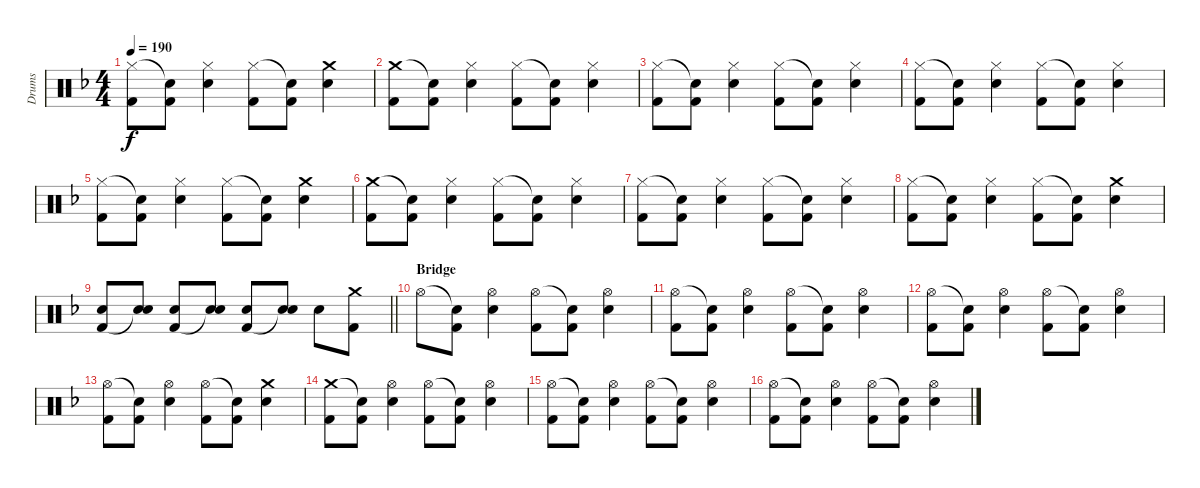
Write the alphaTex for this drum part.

\track ("Drums" "Drums") {instrument percussion}
\staff {score}
\articulation defaults
\ts (4 4)
\tempo 190
\clef neutral
\ks dminor
("Hi-Hat (closed)" "Kick (hit) 2").8{dy f} ("Snare (hit)"{t} "Kick (hit) 2").8 ("Hi-Hat (closed)" "Electric Snare (hit)").4 ("Hi-Hat (closed)" "Kick (hit) 2").8 ("Snare (hit)"{t} "Kick (hit) 2").8 ("Crash medium (hit)" "Electric Snare (hit)").4 |
("Crash medium (hit)" "Kick (hit) 2").8 ("Snare (hit)"{t} "Kick (hit) 2").8 ("Hi-Hat (closed)" "Electric Snare (hit)").4 ("Hi-Hat (closed)" "Kick (hit) 2").8 ("Snare (hit)"{t} "Kick (hit) 2").8 ("Hi-Hat (closed)" "Electric Snare (hit)").4 |
("Hi-Hat (closed)" "Kick (hit) 2").8 ("Snare (hit)"{t} "Kick (hit) 2").8 ("Hi-Hat (closed)" "Electric Snare (hit)").4 ("Hi-Hat (closed)" "Kick (hit) 2").8 ("Snare (hit)"{t} "Kick (hit) 2").8 ("Hi-Hat (closed)" "Electric Snare (hit)").4 |
("Hi-Hat (closed)" "Kick (hit) 2").8 ("Snare (hit)"{t} "Kick (hit) 2").8 ("Hi-Hat (closed)" "Electric Snare (hit)").4 ("Hi-Hat (closed)" "Kick (hit) 2").8 ("Snare (hit)"{t} "Kick (hit) 2").8 ("Hi-Hat (closed)" "Electric Snare (hit)").4 |
("Hi-Hat (closed)" "Kick (hit) 2").8 ("Snare (hit)"{t} "Kick (hit) 2").8 ("Hi-Hat (closed)" "Electric Snare (hit)").4 ("Hi-Hat (closed)" "Kick (hit) 2").8 ("Snare (hit)"{t} "Kick (hit) 2").8 ("Crash medium (hit)" "Electric Snare (hit)").4 |
("Crash medium (hit)" "Kick (hit) 2").8 ("Snare (hit)"{t} "Kick (hit) 2").8 ("Hi-Hat (closed)" "Electric Snare (hit)").4 ("Hi-Hat (closed)" "Kick (hit) 2").8 ("Snare (hit)"{t} "Kick (hit) 2").8 ("Hi-Hat (closed)" "Electric Snare (hit)").4 |
("Hi-Hat (closed)" "Kick (hit) 2").8 ("Snare (hit)"{t} "Kick (hit) 2").8 ("Hi-Hat (closed)" "Electric Snare (hit)").4 ("Hi-Hat (closed)" "Kick (hit) 2").8 ("Snare (hit)"{t} "Kick (hit) 2").8 ("Hi-Hat (closed)" "Electric Snare (hit)").4 |
("Hi-Hat (closed)" "Kick (hit) 2").8 ("Snare (hit)"{t} "Kick (hit) 2").8 ("Hi-Hat (closed)" "Electric Snare (hit)").4 ("Hi-Hat (closed)" "Kick (hit) 2").8 ("Snare (hit)"{t} "Kick (hit) 2").8 ("Crash medium (hit)" "Electric Snare (hit)").4 |
\barLineRight lightlight
("Electric Snare (hit)" "Kick (hit) 2").8 ("Electric Snare (hit)" "Snare (hit)"{t}).8 ("Electric Snare (hit)" "Kick (hit) 2").8 ("Electric Snare (hit)" "Snare (hit)"{t}).8 ("Electric Snare (hit)" "Kick (hit) 2").8 ("Electric Snare (hit)" "Snare (hit)"{t}).8 "Electric Snare (hit)".8 ("Crash medium (hit)" "Kick (hit) 2").8 |
\section ("" "Bridge")
"Hi-Hat (open)".8 ("Snare (hit)"{t} "Kick (hit) 2").8 ("Hi-Hat (open)" "Electric Snare (hit)").4 ("Hi-Hat (open)" "Kick (hit) 2").8 ("Snare (hit)"{t} "Kick (hit) 2").8 ("Hi-Hat (open)" "Electric Snare (hit)").4 |
("Hi-Hat (open)" "Kick (hit) 2").8 ("Snare (hit)"{t} "Kick (hit) 2").8 ("Hi-Hat (open)" "Electric Snare (hit)").4 ("Hi-Hat (open)" "Kick (hit) 2").8 ("Snare (hit)"{t} "Kick (hit) 2").8 ("Hi-Hat (open)" "Electric Snare (hit)").4 |
("Hi-Hat (open)" "Kick (hit) 2").8 ("Snare (hit)"{t} "Kick (hit) 2").8 ("Hi-Hat (open)" "Electric Snare (hit)").4 ("Hi-Hat (open)" "Kick (hit) 2").8 ("Snare (hit)"{t} "Kick (hit) 2").8 ("Hi-Hat (open)" "Electric Snare (hit)").4 |
("Hi-Hat (open)" "Kick (hit) 2").8 ("Snare (hit)"{t} "Kick (hit) 2").8 ("Hi-Hat (open)" "Electric Snare (hit)").4 ("Hi-Hat (open)" "Kick (hit) 2").8 ("Snare (hit)"{t} "Kick (hit) 2").8 ("Crash medium (hit)" "Electric Snare (hit)").4 |
("Crash medium (hit)" "Kick (hit) 2").8 ("Snare (hit)"{t} "Kick (hit) 2").8 ("Hi-Hat (open)" "Electric Snare (hit)").4 ("Hi-Hat (open)" "Kick (hit) 2").8 ("Snare (hit)"{t} "Kick (hit) 2").8 ("Hi-Hat (open)" "Electric Snare (hit)").4 |
("Hi-Hat (open)" "Kick (hit) 2").8 ("Snare (hit)"{t} "Kick (hit) 2").8 ("Hi-Hat (open)" "Electric Snare (hit)").4 ("Hi-Hat (open)" "Kick (hit) 2").8 ("Snare (hit)"{t} "Kick (hit) 2").8 ("Hi-Hat (open)" "Electric Snare (hit)").4 |
("Hi-Hat (open)" "Kick (hit) 2").8 ("Snare (hit)"{t} "Kick (hit) 2").8 ("Hi-Hat (open)" "Electric Snare (hit)").4 ("Hi-Hat (open)" "Kick (hit) 2").8 ("Snare (hit)"{t} "Kick (hit) 2").8 ("Hi-Hat (open)" "Electric Snare (hit)").4
